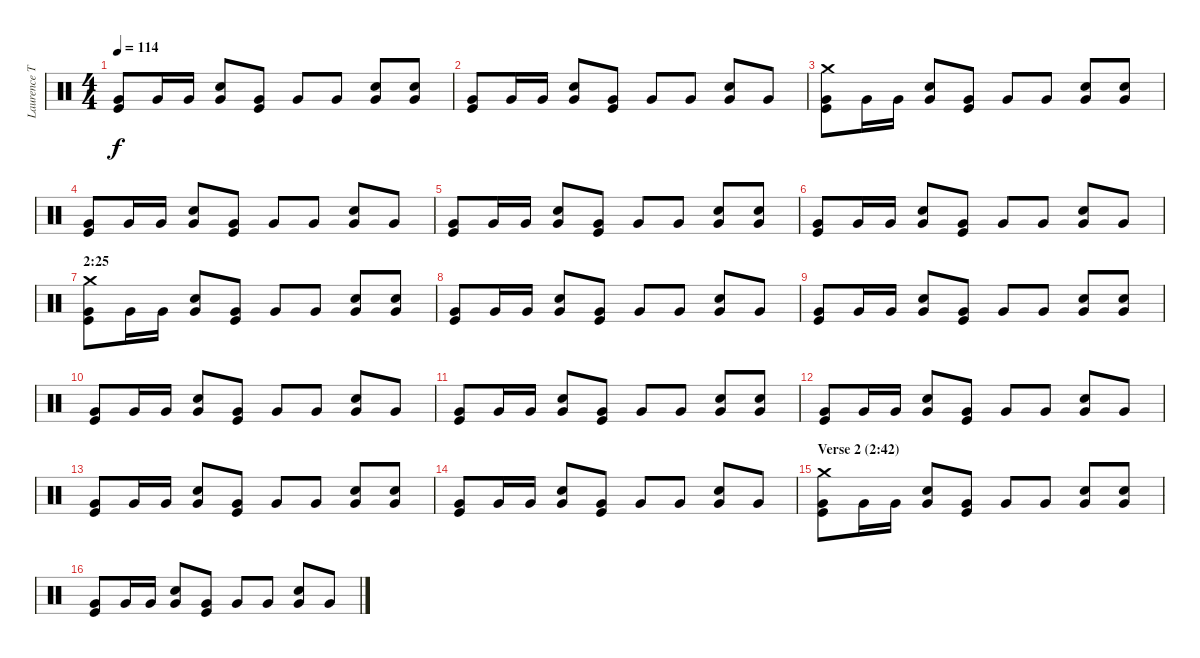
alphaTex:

\track ("Laurence Tolhurst (drums)" "Laurence T") {instrument percussion}
\staff {score}
\articulation defaults
\ts (4 4)
\tempo 114
\clef neutral
\ks c
("Very Low Tom (hit)" "Kick (hit)").8{dy f} "Very Low Tom (hit)".16 "Very Low Tom (hit)".16 ("Very Low Tom (hit)" "Snare (hit) 2").8 ("Very Low Tom (hit)" "Kick (hit)").8 "Very Low Tom (hit)".8 "Very Low Tom (hit)".8 ("Very Low Tom (hit)" "Snare (hit) 2").8 ("Very Low Tom (hit)" "Snare (hit) 2").8 |
("Very Low Tom (hit)" "Kick (hit)").8 "Very Low Tom (hit)".16 "Very Low Tom (hit)".16 ("Very Low Tom (hit)" "Snare (hit) 2").8 ("Very Low Tom (hit)" "Kick (hit)").8 "Very Low Tom (hit)".8 "Very Low Tom (hit)".8 ("Very Low Tom (hit)" "Snare (hit) 2").8 "Very Low Tom (hit)".8 |
("Crash medium (hit)" "Very Low Tom (hit)" "Kick (hit)").8 "Very Low Tom (hit)".16 "Very Low Tom (hit)".16 ("Very Low Tom (hit)" "Snare (hit) 2").8 ("Very Low Tom (hit)" "Kick (hit)").8 "Very Low Tom (hit)".8 "Very Low Tom (hit)".8 ("Very Low Tom (hit)" "Snare (hit) 2").8 ("Very Low Tom (hit)" "Snare (hit) 2").8 |
("Very Low Tom (hit)" "Kick (hit)").8 "Very Low Tom (hit)".16 "Very Low Tom (hit)".16 ("Very Low Tom (hit)" "Snare (hit) 2").8 ("Very Low Tom (hit)" "Kick (hit)").8 "Very Low Tom (hit)".8 "Very Low Tom (hit)".8 ("Very Low Tom (hit)" "Snare (hit) 2").8 "Very Low Tom (hit)".8 |
("Very Low Tom (hit)" "Kick (hit)").8 "Very Low Tom (hit)".16 "Very Low Tom (hit)".16 ("Very Low Tom (hit)" "Snare (hit) 2").8 ("Very Low Tom (hit)" "Kick (hit)").8 "Very Low Tom (hit)".8 "Very Low Tom (hit)".8 ("Very Low Tom (hit)" "Snare (hit) 2").8 ("Very Low Tom (hit)" "Snare (hit) 2").8 |
("Very Low Tom (hit)" "Kick (hit)").8 "Very Low Tom (hit)".16 "Very Low Tom (hit)".16 ("Very Low Tom (hit)" "Snare (hit) 2").8 ("Very Low Tom (hit)" "Kick (hit)").8 "Very Low Tom (hit)".8 "Very Low Tom (hit)".8 ("Very Low Tom (hit)" "Snare (hit) 2").8 "Very Low Tom (hit)".8 |
\section ("" "2:25")
("Crash medium (hit)" "Very Low Tom (hit)" "Kick (hit)").8 "Very Low Tom (hit)".16 "Very Low Tom (hit)".16 ("Very Low Tom (hit)" "Snare (hit) 2").8 ("Very Low Tom (hit)" "Kick (hit)").8 "Very Low Tom (hit)".8 "Very Low Tom (hit)".8 ("Very Low Tom (hit)" "Snare (hit) 2").8 ("Very Low Tom (hit)" "Snare (hit) 2").8 |
("Very Low Tom (hit)" "Kick (hit)").8 "Very Low Tom (hit)".16 "Very Low Tom (hit)".16 ("Very Low Tom (hit)" "Snare (hit) 2").8 ("Very Low Tom (hit)" "Kick (hit)").8 "Very Low Tom (hit)".8 "Very Low Tom (hit)".8 ("Very Low Tom (hit)" "Snare (hit) 2").8 "Very Low Tom (hit)".8 |
("Very Low Tom (hit)" "Kick (hit)").8 "Very Low Tom (hit)".16 "Very Low Tom (hit)".16 ("Very Low Tom (hit)" "Snare (hit) 2").8 ("Very Low Tom (hit)" "Kick (hit)").8 "Very Low Tom (hit)".8 "Very Low Tom (hit)".8 ("Very Low Tom (hit)" "Snare (hit) 2").8 ("Very Low Tom (hit)" "Snare (hit) 2").8 |
("Very Low Tom (hit)" "Kick (hit)").8 "Very Low Tom (hit)".16 "Very Low Tom (hit)".16 ("Very Low Tom (hit)" "Snare (hit) 2").8 ("Very Low Tom (hit)" "Kick (hit)").8 "Very Low Tom (hit)".8 "Very Low Tom (hit)".8 ("Very Low Tom (hit)" "Snare (hit) 2").8 "Very Low Tom (hit)".8 |
("Very Low Tom (hit)" "Kick (hit)").8 "Very Low Tom (hit)".16 "Very Low Tom (hit)".16 ("Very Low Tom (hit)" "Snare (hit) 2").8 ("Very Low Tom (hit)" "Kick (hit)").8 "Very Low Tom (hit)".8 "Very Low Tom (hit)".8 ("Very Low Tom (hit)" "Snare (hit) 2").8 ("Very Low Tom (hit)" "Snare (hit) 2").8 |
("Very Low Tom (hit)" "Kick (hit)").8 "Very Low Tom (hit)".16 "Very Low Tom (hit)".16 ("Very Low Tom (hit)" "Snare (hit) 2").8 ("Very Low Tom (hit)" "Kick (hit)").8 "Very Low Tom (hit)".8 "Very Low Tom (hit)".8 ("Very Low Tom (hit)" "Snare (hit) 2").8 "Very Low Tom (hit)".8 |
("Very Low Tom (hit)" "Kick (hit)").8 "Very Low Tom (hit)".16 "Very Low Tom (hit)".16 ("Very Low Tom (hit)" "Snare (hit) 2").8 ("Very Low Tom (hit)" "Kick (hit)").8 "Very Low Tom (hit)".8 "Very Low Tom (hit)".8 ("Very Low Tom (hit)" "Snare (hit) 2").8 ("Very Low Tom (hit)" "Snare (hit) 2").8 |
("Very Low Tom (hit)" "Kick (hit)").8 "Very Low Tom (hit)".16 "Very Low Tom (hit)".16 ("Very Low Tom (hit)" "Snare (hit) 2").8 ("Very Low Tom (hit)" "Kick (hit)").8 "Very Low Tom (hit)".8 "Very Low Tom (hit)".8 ("Very Low Tom (hit)" "Snare (hit) 2").8 "Very Low Tom (hit)".8 |
\section ("" "Verse 2 (2:42)")
("Crash medium (hit)" "Very Low Tom (hit)" "Kick (hit)").8 "Very Low Tom (hit)".16 "Very Low Tom (hit)".16 ("Very Low Tom (hit)" "Snare (hit) 2").8 ("Very Low Tom (hit)" "Kick (hit)").8 "Very Low Tom (hit)".8 "Very Low Tom (hit)".8 ("Very Low Tom (hit)" "Snare (hit) 2").8 ("Very Low Tom (hit)" "Snare (hit) 2").8 |
("Very Low Tom (hit)" "Kick (hit)").8 "Very Low Tom (hit)".16 "Very Low Tom (hit)".16 ("Very Low Tom (hit)" "Snare (hit) 2").8 ("Very Low Tom (hit)" "Kick (hit)").8 "Very Low Tom (hit)".8 "Very Low Tom (hit)".8 ("Very Low Tom (hit)" "Snare (hit) 2").8 "Very Low Tom (hit)".8
